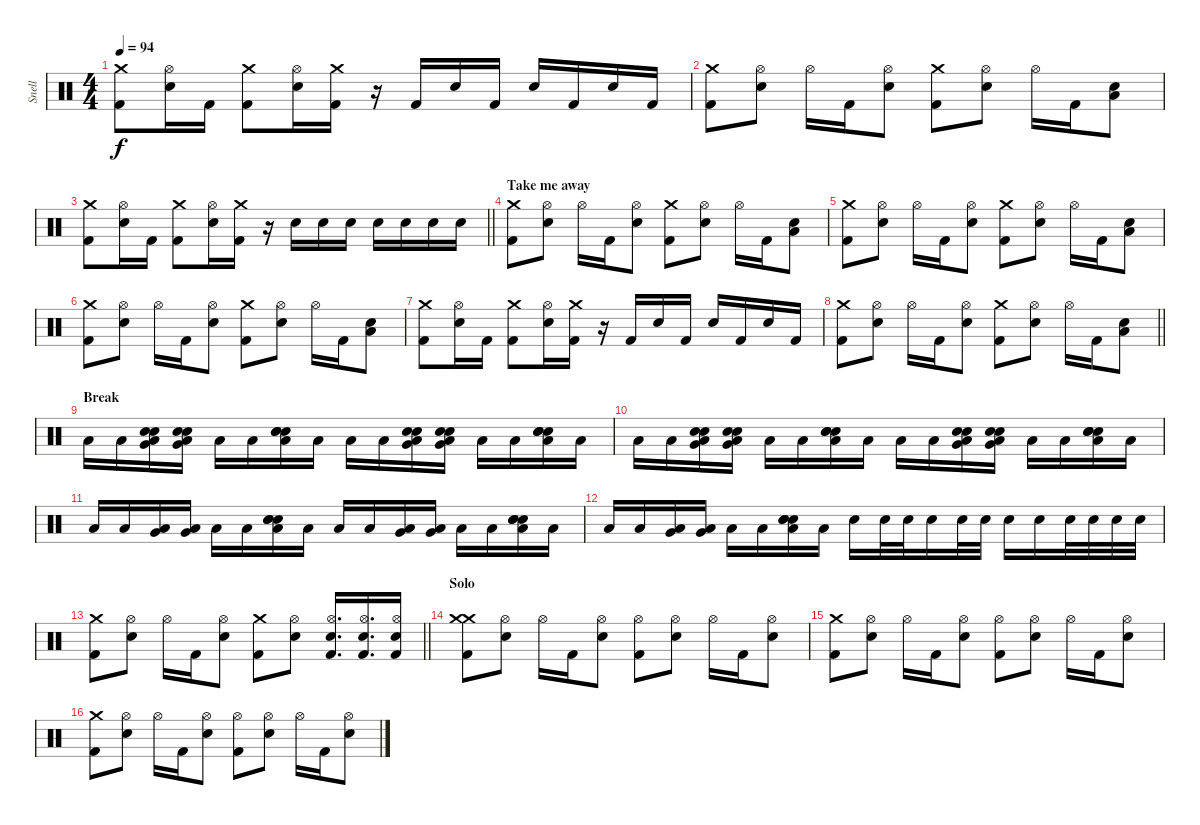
\track ("Snell" "Snell") {instrument percussion}
\staff {score}
\articulation defaults
\ts (4 4)
\tempo 94
\clef neutral
\ks c
("Crash medium (hit)" "Kick (hit) 2").8{dy f} ("Hi-Hat (open)" "Electric Snare (hit)").16 "Kick (hit) 2".16 ("Crash medium (hit)" "Kick (hit) 2").8 ("Hi-Hat (open)" "Electric Snare (hit)").16 ("Crash medium (hit)" "Kick (hit) 2").16 r.16 "Kick (hit) 2".16 "Electric Snare (hit)".16 "Kick (hit) 2".16 "Electric Snare (hit)".16 "Kick (hit) 2".16 "Electric Snare (hit)".16 "Kick (hit) 2".16 |
("Crash medium (hit)" "Kick (hit) 2").8 ("Hi-Hat (open)" "Electric Snare (hit)").8 "Hi-Hat (open)".16 "Kick (hit) 2".16 ("Hi-Hat (open)" "Electric Snare (hit)").8 ("Crash medium (hit)" "Kick (hit) 2").8 ("Hi-Hat (open)" "Electric Snare (hit)").8 "Hi-Hat (open)".16 "Kick (hit) 2".16 ("Low Tom (hit)" "Electric Snare (hit)").8 |
\barLineRight lightlight
("Crash medium (hit)" "Kick (hit) 2").8 ("Hi-Hat (open)" "Electric Snare (hit)").16 "Kick (hit) 2".16 ("Crash medium (hit)" "Kick (hit) 2").8 ("Hi-Hat (open)" "Electric Snare (hit)").16 ("Crash medium (hit)" "Kick (hit) 2").16 r.16 "Electric Snare (hit)".16 "Electric Snare (hit)".16 "Electric Snare (hit)".16 "Electric Snare (hit)".16 "Electric Snare (hit)".16 "Electric Snare (hit)".16 "Electric Snare (hit)".16 |
\section ("" "Take me away")
("Crash medium (hit)" "Kick (hit) 2").8 ("Hi-Hat (open)" "Electric Snare (hit)").8 "Hi-Hat (open)".16 "Kick (hit) 2".16 ("Hi-Hat (open)" "Electric Snare (hit)").8 ("Crash medium (hit)" "Kick (hit) 2").8 ("Hi-Hat (open)" "Electric Snare (hit)").8 "Hi-Hat (open)".16 "Kick (hit) 2".16 ("Low Tom (hit)" "Electric Snare (hit)").8 |
("Crash medium (hit)" "Kick (hit) 2").8 ("Hi-Hat (open)" "Electric Snare (hit)").8 "Hi-Hat (open)".16 "Kick (hit) 2".16 ("Hi-Hat (open)" "Electric Snare (hit)").8 ("Crash medium (hit)" "Kick (hit) 2").8 ("Hi-Hat (open)" "Electric Snare (hit)").8 "Hi-Hat (open)".16 "Kick (hit) 2".16 ("Low Tom (hit)" "Electric Snare (hit)").8 |
("Crash medium (hit)" "Kick (hit) 2").8 ("Hi-Hat (open)" "Electric Snare (hit)").8 "Hi-Hat (open)".16 "Kick (hit) 2".16 ("Hi-Hat (open)" "Electric Snare (hit)").8 ("Crash medium (hit)" "Kick (hit) 2").8 ("Hi-Hat (open)" "Electric Snare (hit)").8 "Hi-Hat (open)".16 "Kick (hit) 2".16 ("Low Tom (hit)" "Electric Snare (hit)").8 |
("Crash medium (hit)" "Kick (hit) 2").8 ("Hi-Hat (open)" "Electric Snare (hit)").16 "Kick (hit) 2".16 ("Crash medium (hit)" "Kick (hit) 2").8 ("Hi-Hat (open)" "Electric Snare (hit)").16 ("Crash medium (hit)" "Kick (hit) 2").16 r.16 "Kick (hit) 2".16 "Electric Snare (hit)".16 "Kick (hit) 2".16 "Electric Snare (hit)".16 "Kick (hit) 2".16 "Electric Snare (hit)".16 "Kick (hit) 2".16 |
\barLineRight lightlight
("Crash medium (hit)" "Kick (hit) 2").8 ("Hi-Hat (open)" "Electric Snare (hit)").8 "Hi-Hat (open)".16 "Kick (hit) 2".16 ("Hi-Hat (open)" "Electric Snare (hit)").8 ("Crash medium (hit)" "Kick (hit) 2").8 ("Hi-Hat (open)" "Electric Snare (hit)").8 "Hi-Hat (open)".16 "Kick (hit) 2".16 ("Low Tom (hit)" "Electric Snare (hit)").8 |
\section ("" "Break")
"Low Tom (hit)".16 "Low Tom (hit)".16 ("Very Low Tom (hit)" "Low Tom (hit)" "Hand Clap (hit)" "Electric Snare (hit)").16 ("Very Low Tom (hit)" "Low Tom (hit)" "Hand Clap (hit)" "Electric Snare (hit)").16 "Low Tom (hit)".16 "Low Tom (hit)".16 ("Electric Snare (hit)" "Low Tom (hit)" "Hand Clap (hit)" "Electric Snare (hit)").16 "Low Tom (hit)".16 "Low Tom (hit)".16 "Low Tom (hit)".16 ("Very Low Tom (hit)" "Low Tom (hit)" "Hand Clap (hit)" "Electric Snare (hit)").16 ("Very Low Tom (hit)" "Low Tom (hit)" "Hand Clap (hit)" "Electric Snare (hit)").16 "Low Tom (hit)".16 "Low Tom (hit)".16 ("Electric Snare (hit)" "Low Tom (hit)" "Hand Clap (hit)" "Electric Snare (hit)").16 "Low Tom (hit)".16 |
"Low Tom (hit)".16 "Low Tom (hit)".16 ("Very Low Tom (hit)" "Low Tom (hit)" "Hand Clap (hit)" "Electric Snare (hit)").16 ("Very Low Tom (hit)" "Low Tom (hit)" "Hand Clap (hit)" "Electric Snare (hit)").16 "Low Tom (hit)".16 "Low Tom (hit)".16 ("Electric Snare (hit)" "Low Tom (hit)" "Hand Clap (hit)" "Electric Snare (hit)").16 "Low Tom (hit)".16 "Low Tom (hit)".16 "Low Tom (hit)".16 ("Very Low Tom (hit)" "Low Tom (hit)" "Hand Clap (hit)" "Electric Snare (hit)").16 ("Very Low Tom (hit)" "Low Tom (hit)" "Hand Clap (hit)" "Electric Snare (hit)").16 "Low Tom (hit)".16 "Low Tom (hit)".16 ("Electric Snare (hit)" "Low Tom (hit)" "Hand Clap (hit)" "Electric Snare (hit)").16 "Low Tom (hit)".16 |
"Low Tom (hit)".16 "Low Tom (hit)".16 ("Very Low Tom (hit)" "Low Tom (hit)").16 ("Very Low Tom (hit)" "Low Tom (hit)").16 "Low Tom (hit)".16 "Low Tom (hit)".16 ("Electric Snare (hit)" "Low Tom (hit)" "Hand Clap (hit)" "Electric Snare (hit)").16 "Low Tom (hit)".16 "Low Tom (hit)".16 "Low Tom (hit)".16 ("Very Low Tom (hit)" "Low Tom (hit)").16 ("Very Low Tom (hit)" "Low Tom (hit)").16 "Low Tom (hit)".16 "Low Tom (hit)".16 ("Electric Snare (hit)" "Low Tom (hit)" "Hand Clap (hit)" "Electric Snare (hit)").16 "Low Tom (hit)".16 |
"Low Tom (hit)".16 "Low Tom (hit)".16 ("Very Low Tom (hit)" "Low Tom (hit)").16 ("Very Low Tom (hit)" "Low Tom (hit)").16 "Low Tom (hit)".16 "Low Tom (hit)".16 ("Electric Snare (hit)" "Low Tom (hit)" "Hand Clap (hit)" "Electric Snare (hit)").16 "Low Tom (hit)".16 "Electric Snare (hit)".16 "Electric Snare (hit)".32 "Electric Snare (hit)".32 "Electric Snare (hit)".16 "Electric Snare (hit)".32 "Electric Snare (hit)".32 "Electric Snare (hit)".16 "Electric Snare (hit)".16 "Electric Snare (hit)".32 "Electric Snare (hit)".32 "Electric Snare (hit)".32 "Electric Snare (hit)".32 |
\barLineRight lightlight
("Crash medium (hit)" "Kick (hit) 2").8 ("Hi-Hat (open)" "Electric Snare (hit)").8 "Hi-Hat (open)".16 "Kick (hit) 2".16 ("Hi-Hat (open)" "Electric Snare (hit)").8 ("Crash medium (hit)" "Kick (hit) 2").8 ("Hi-Hat (open)" "Electric Snare (hit)").8 ("Hi-Hat (open)" "Electric Snare (hit)" "Kick (hit) 2").16{d} ("Hi-Hat (open)" "Electric Snare (hit)" "Kick (hit) 2").16{d} ("Hi-Hat (open)" "Electric Snare (hit)" "Kick (hit) 2").16 |
\section ("" "Solo")
("Crash medium (hit)" "Crash medium (hit)" "Kick (hit) 2").8 ("Hi-Hat (open)" "Electric Snare (hit)").8 "Hi-Hat (open)".16 "Kick (hit) 2".16 ("Hi-Hat (open)" "Electric Snare (hit)").8 ("Hi-Hat (open)" "Kick (hit) 2").8 ("Hi-Hat (open)" "Electric Snare (hit)").8 "Hi-Hat (open)".16 "Kick (hit) 2".16 ("Hi-Hat (open)" "Electric Snare (hit)").8 |
("Crash medium (hit)" "Kick (hit) 2").8 ("Hi-Hat (open)" "Electric Snare (hit)").8 "Hi-Hat (open)".16 "Kick (hit) 2".16 ("Hi-Hat (open)" "Electric Snare (hit)").8 ("Hi-Hat (open)" "Kick (hit) 2").8 ("Hi-Hat (open)" "Electric Snare (hit)").8 "Hi-Hat (open)".16 "Kick (hit) 2".16 ("Hi-Hat (open)" "Electric Snare (hit)").8 |
("Crash medium (hit)" "Kick (hit) 2").8 ("Hi-Hat (open)" "Electric Snare (hit)").8 "Hi-Hat (open)".16 "Kick (hit) 2".16 ("Hi-Hat (open)" "Electric Snare (hit)").8 ("Hi-Hat (open)" "Kick (hit) 2").8 ("Hi-Hat (open)" "Electric Snare (hit)").8 "Hi-Hat (open)".16 "Kick (hit) 2".16 ("Hi-Hat (open)" "Electric Snare (hit)").8
